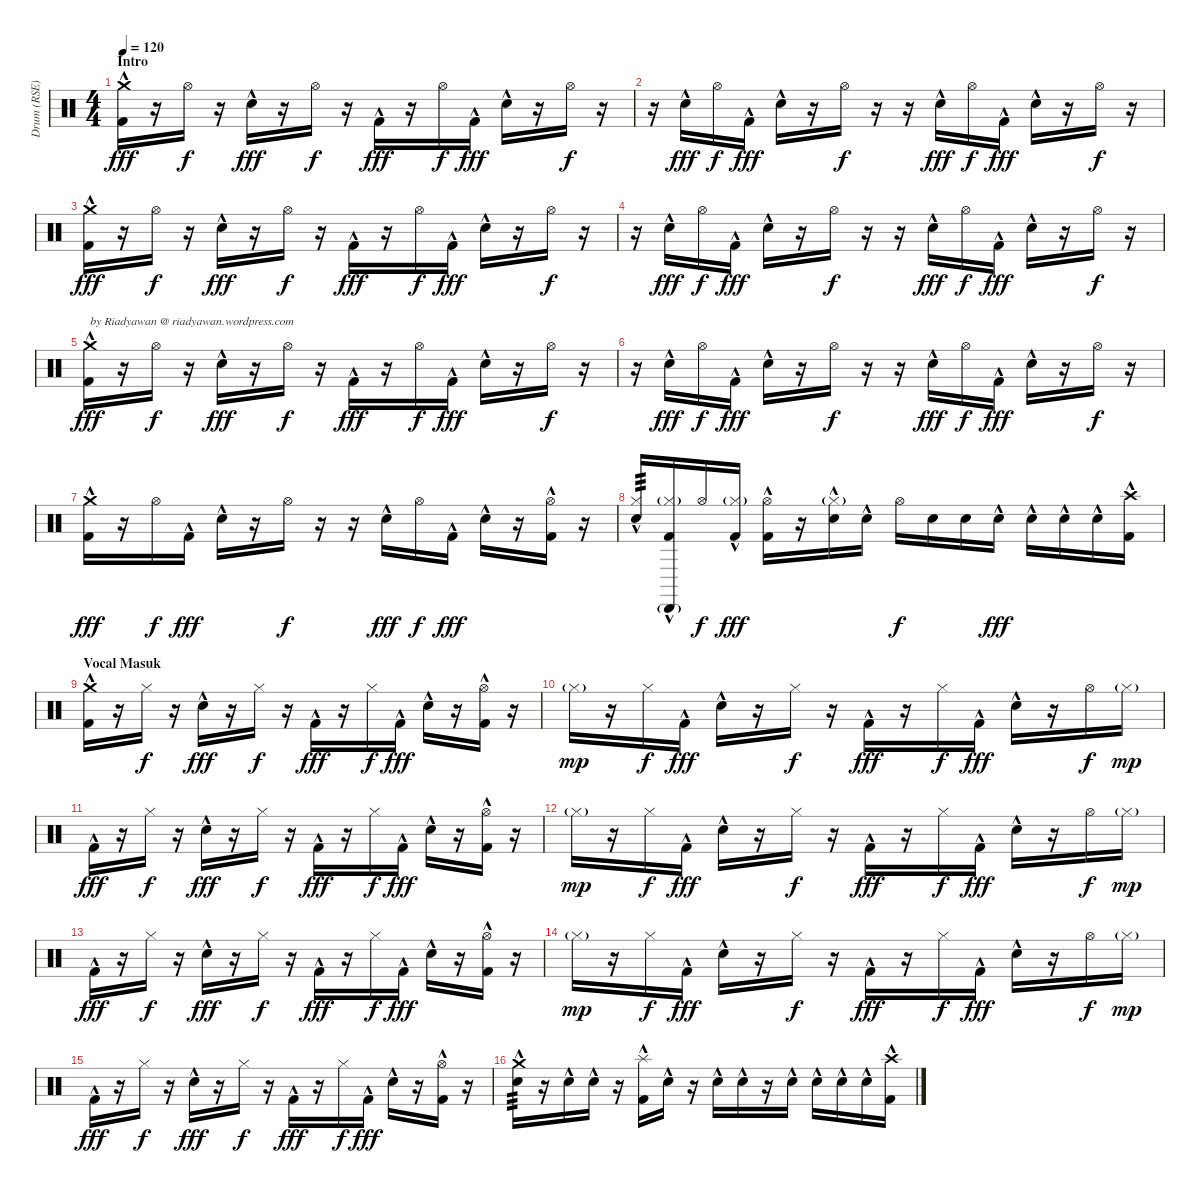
\track ("Drum (RSE)" "Drum (RSE)") {instrument percussion}
\staff {score}
\articulation defaults
\ts (4 4)
\section ("" "Intro")
\tempo 120
\clef neutral
\ks c
("Crash medium (hit)" "Kick (hit) 2"{hac}).16{dy fff} r.16 "Hi-Hat (open)".16{dy f} r.16 "Snare (hit) 2"{hac}.16{dy fff} r.16 "Hi-Hat (open)".16{dy f} r.16 "Kick (hit) 2"{hac}.16{dy fff} r.16 "Hi-Hat (open)".16{dy f} "Kick (hit) 2"{hac}.16{dy fff} "Snare (hit) 2"{hac}.16 r.16 "Hi-Hat (open)".16{dy f} r.16 |
r.16 "Snare (hit) 2"{hac}.16{dy fff} "Hi-Hat (open)".16{dy f} "Kick (hit) 2"{hac}.16{dy fff} "Snare (hit) 2"{hac}.16 r.16 "Hi-Hat (open)".16{dy f} r.16 r.16 "Snare (hit) 2"{hac}.16{dy fff} "Hi-Hat (open)".16{dy f} "Kick (hit) 2"{hac}.16{dy fff} "Snare (hit) 2"{hac}.16 r.16 "Hi-Hat (open)".16{dy f} r.16 |
("Crash medium (hit)" "Kick (hit) 2"{hac}).16{dy fff} r.16 "Hi-Hat (open)".16{dy f} r.16 "Snare (hit) 2"{hac}.16{dy fff} r.16 "Hi-Hat (open)".16{dy f} r.16 "Kick (hit) 2"{hac}.16{dy fff} r.16 "Hi-Hat (open)".16{dy f} "Kick (hit) 2"{hac}.16{dy fff} "Snare (hit) 2"{hac}.16 r.16 "Hi-Hat (open)".16{dy f} r.16 |
r.16 "Snare (hit) 2"{hac}.16{dy fff} "Hi-Hat (open)".16{dy f} "Kick (hit) 2"{hac}.16{dy fff} "Snare (hit) 2"{hac}.16 r.16 "Hi-Hat (open)".16{dy f} r.16 r.16 "Snare (hit) 2"{hac}.16{dy fff} "Hi-Hat (open)".16{dy f} "Kick (hit) 2"{hac}.16{dy fff} "Snare (hit) 2"{hac}.16 r.16 "Hi-Hat (open)".16{dy f} r.16 |
("Crash medium (hit)" "Kick (hit) 2"{hac}).16{txt "by Riadyawan @ riadyawan.wordpress.com" dy fff} r.16 "Hi-Hat (open)".16{dy f} r.16 "Snare (hit) 2"{hac}.16{dy fff} r.16 "Hi-Hat (open)".16{dy f} r.16 "Kick (hit) 2"{hac}.16{dy fff} r.16 "Hi-Hat (open)".16{dy f} "Kick (hit) 2"{hac}.16{dy fff} "Snare (hit) 2"{hac}.16 r.16 "Hi-Hat (open)".16{dy f} r.16 |
r.16 "Snare (hit) 2"{hac}.16{dy fff} "Hi-Hat (open)".16{dy f} "Kick (hit) 2"{hac}.16{dy fff} "Snare (hit) 2"{hac}.16 r.16 "Hi-Hat (open)".16{dy f} r.16 r.16 "Snare (hit) 2"{hac}.16{dy fff} "Hi-Hat (open)".16{dy f} "Kick (hit) 2"{hac}.16{dy fff} "Snare (hit) 2"{hac}.16 r.16 "Hi-Hat (open)".16{dy f} r.16 |
("Crash medium (hit)" "Kick (hit) 2"{hac}).16{dy fff} r.16 "Hi-Hat (open)".16{dy f} "Kick (hit) 2"{hac}.16{dy fff} "Snare (hit) 2"{hac}.16 r.16 "Hi-Hat (open)".16{dy f} r.16 r.16 "Snare (hit) 2"{hac}.16{dy fff} "Hi-Hat (open)".16{dy f} "Kick (hit) 2"{hac}.16{dy fff} "Snare (hit) 2"{hac}.16 r.16 ("Hi-Hat (open)" "Kick (hit) 2"{hac}).16 r.16 |
("Hi-Hat (closed)" "Snare (hit) 2"{hac}).16{tp 3} ("Cabasa (hit)"{g} "Hi-Hat (closed)"{g} "Kick (hit) 2"{hac}).16 "Hi-Hat (open)".16{dy f} ("Hi-Hat (closed)"{g} "Kick (hit) 2"{hac}).16{dy fff} ("Hi-Hat (open)" "Kick (hit) 2"{hac}).16 r.16 ("Hi-Hat (closed)"{g} "Snare (hit) 2"{hac}).16 "Snare (hit) 2"{hac}.16 "Hi-Hat (open)".16{dy f} "Snare (hit) 2".16 "Snare (hit) 2".16 "Snare (hit) 2"{hac}.16{dy fff} "Snare (hit) 2"{hac}.16 "Snare (hit) 2"{hac}.16 "Snare (hit) 2"{hac}.16 ("Crash high (hit)" "Kick (hit) 2"{hac}).16 |
\section ("" "Vocal Masuk")
("Crash medium (hit)" "Kick (hit) 2"{hac}).16 r.16 "Hi-Hat (closed)".16{dy f} r.16 "Snare (hit) 2"{hac}.16{dy fff} r.16 "Hi-Hat (closed)".16{dy f} r.16 "Kick (hit) 2"{hac}.16{dy fff} r.16 "Hi-Hat (closed)".16{dy f} "Kick (hit) 2"{hac}.16{dy fff} "Snare (hit) 2"{hac}.16 r.16 ("Hi-Hat (open)" "Kick (hit) 2"{hac}).16 r.16 |
"Hi-Hat (closed)"{g}.16{dy mp} r.16 "Hi-Hat (closed)".16{dy f} "Kick (hit) 2"{hac}.16{dy fff} "Snare (hit) 2"{hac}.16 r.16 "Hi-Hat (closed)".16{dy f} r.16 "Kick (hit) 2"{hac}.16{dy fff} r.16 "Hi-Hat (closed)".16{dy f} "Kick (hit) 2"{hac}.16{dy fff} "Snare (hit) 2"{hac}.16 r.16 "Hi-Hat (open)".16{dy f} "Hi-Hat (closed)"{g}.16{dy mp} |
"Kick (hit) 2"{hac}.16{dy fff} r.16 "Hi-Hat (closed)".16{dy f} r.16 "Snare (hit) 2"{hac}.16{dy fff} r.16 "Hi-Hat (closed)".16{dy f} r.16 "Kick (hit) 2"{hac}.16{dy fff} r.16 "Hi-Hat (closed)".16{dy f} "Kick (hit) 2"{hac}.16{dy fff} "Snare (hit) 2"{hac}.16 r.16 ("Hi-Hat (open)" "Kick (hit) 2"{hac}).16 r.16 |
"Hi-Hat (closed)"{g}.16{dy mp} r.16 "Hi-Hat (closed)".16{dy f} "Kick (hit) 2"{hac}.16{dy fff} "Snare (hit) 2"{hac}.16 r.16 "Hi-Hat (closed)".16{dy f} r.16 "Kick (hit) 2"{hac}.16{dy fff} r.16 "Hi-Hat (closed)".16{dy f} "Kick (hit) 2"{hac}.16{dy fff} "Snare (hit) 2"{hac}.16 r.16 "Hi-Hat (open)".16{dy f} "Hi-Hat (closed)"{g}.16{dy mp} |
"Kick (hit) 2"{hac}.16{dy fff} r.16 "Hi-Hat (closed)".16{dy f} r.16 "Snare (hit) 2"{hac}.16{dy fff} r.16 "Hi-Hat (closed)".16{dy f} r.16 "Kick (hit) 2"{hac}.16{dy fff} r.16 "Hi-Hat (closed)".16{dy f} "Kick (hit) 2"{hac}.16{dy fff} "Snare (hit) 2"{hac}.16 r.16 ("Hi-Hat (open)" "Kick (hit) 2"{hac}).16 r.16 |
"Hi-Hat (closed)"{g}.16{dy mp} r.16 "Hi-Hat (closed)".16{dy f} "Kick (hit) 2"{hac}.16{dy fff} "Snare (hit) 2"{hac}.16 r.16 "Hi-Hat (closed)".16{dy f} r.16 "Kick (hit) 2"{hac}.16{dy fff} r.16 "Hi-Hat (closed)".16{dy f} "Kick (hit) 2"{hac}.16{dy fff} "Snare (hit) 2"{hac}.16 r.16 "Hi-Hat (open)".16{dy f} "Hi-Hat (closed)"{g}.16{dy mp} |
"Kick (hit) 2"{hac}.16{dy fff} r.16 "Hi-Hat (closed)".16{dy f} r.16 "Snare (hit) 2"{hac}.16{dy fff} r.16 "Hi-Hat (closed)".16{dy f} r.16 "Kick (hit) 2"{hac}.16{dy fff} r.16 "Hi-Hat (closed)".16{dy f} "Kick (hit) 2"{hac}.16{dy fff} "Snare (hit) 2"{hac}.16 r.16 ("Hi-Hat (open)" "Kick (hit) 2"{hac}).16 r.16 |
("Crash medium (hit)" "Snare (hit) 2"{hac}).16{tp 3} r.16 "Snare (hit) 2"{hac}.16 "Snare (hit) 2"{hac}.16 r.16 ("Splash (hit)" "Kick (hit) 2"{hac}).16 "Snare (hit) 2"{hac}.16 r.16 "Snare (hit) 2"{hac}.16 "Snare (hit) 2"{hac}.16 r.16 "Snare (hit) 2"{hac}.16 "Snare (hit) 2"{hac}.16 "Snare (hit) 2"{hac}.16 "Snare (hit) 2"{hac}.16 ("Crash high (hit)" "Kick (hit) 2"{hac}).16
